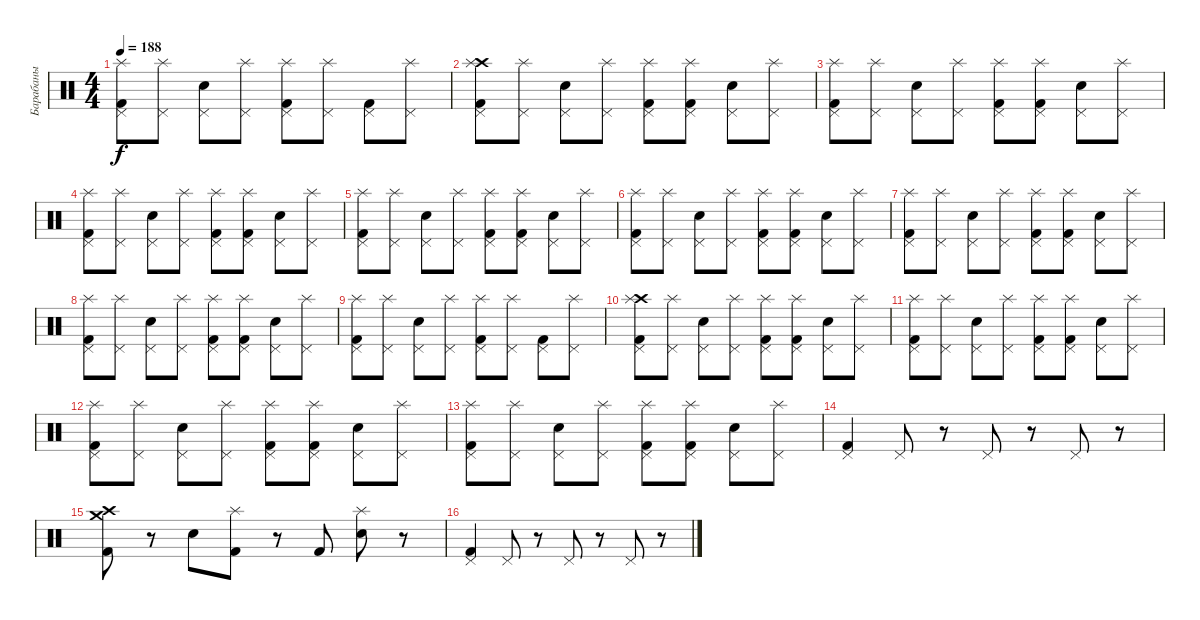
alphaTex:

\track ("Барабаны" "Барабаны") {instrument percussion}
\staff {score}
\articulation defaults
\ts (4 4)
\tempo 188
\clef neutral
\ks c
("Splash (hit)" "Pedal Hi-Hat (hit)" "Kick (hit) 2").8{dy f} ("Splash (hit)" "Pedal Hi-Hat (hit)").8 ("Electric Snare (hit)" "Pedal Hi-Hat (hit)").8 ("Splash (hit)" "Pedal Hi-Hat (hit)").8 ("Splash (hit)" "Pedal Hi-Hat (hit)" "Kick (hit) 2").8 ("Splash (hit)" "Pedal Hi-Hat (hit)").8 ("Kick (hit) 2" "Pedal Hi-Hat (hit)").8 ("Splash (hit)" "Pedal Hi-Hat (hit)").8 |
("Pedal Hi-Hat (hit)" "Kick (hit) 2" "Crash high (hit)" "Splash (hit)").8 ("Pedal Hi-Hat (hit)" "Splash (hit)").8 ("Pedal Hi-Hat (hit)" "Electric Snare (hit)").8 ("Pedal Hi-Hat (hit)" "Splash (hit)").8 ("Pedal Hi-Hat (hit)" "Kick (hit) 2" "Splash (hit)").8 ("Pedal Hi-Hat (hit)" "Kick (hit) 2" "Splash (hit)").8 ("Pedal Hi-Hat (hit)" "Electric Snare (hit)").8 ("Pedal Hi-Hat (hit)" "Splash (hit)").8 |
("Splash (hit)" "Pedal Hi-Hat (hit)" "Kick (hit) 2").8 ("Splash (hit)" "Pedal Hi-Hat (hit)").8 ("Pedal Hi-Hat (hit)" "Electric Snare (hit)").8 ("Splash (hit)" "Pedal Hi-Hat (hit)").8 ("Splash (hit)" "Pedal Hi-Hat (hit)" "Kick (hit) 2").8 ("Splash (hit)" "Pedal Hi-Hat (hit)" "Kick (hit) 2").8 ("Pedal Hi-Hat (hit)" "Electric Snare (hit)").8 ("Splash (hit)" "Pedal Hi-Hat (hit)").8 |
("Splash (hit)" "Pedal Hi-Hat (hit)" "Kick (hit) 2").8 ("Splash (hit)" "Pedal Hi-Hat (hit)").8 ("Pedal Hi-Hat (hit)" "Electric Snare (hit)").8 ("Splash (hit)" "Pedal Hi-Hat (hit)").8 ("Splash (hit)" "Pedal Hi-Hat (hit)" "Kick (hit) 2").8 ("Splash (hit)" "Pedal Hi-Hat (hit)" "Kick (hit) 2").8 ("Pedal Hi-Hat (hit)" "Electric Snare (hit)").8 ("Splash (hit)" "Pedal Hi-Hat (hit)").8 |
("Splash (hit)" "Pedal Hi-Hat (hit)" "Kick (hit) 2").8 ("Splash (hit)" "Pedal Hi-Hat (hit)").8 ("Pedal Hi-Hat (hit)" "Electric Snare (hit)").8 ("Splash (hit)" "Pedal Hi-Hat (hit)").8 ("Splash (hit)" "Pedal Hi-Hat (hit)" "Kick (hit) 2").8 ("Splash (hit)" "Pedal Hi-Hat (hit)" "Kick (hit) 2").8 ("Pedal Hi-Hat (hit)" "Electric Snare (hit)").8 ("Splash (hit)" "Pedal Hi-Hat (hit)").8 |
("Splash (hit)" "Pedal Hi-Hat (hit)" "Kick (hit) 2").8 ("Splash (hit)" "Pedal Hi-Hat (hit)").8 ("Pedal Hi-Hat (hit)" "Electric Snare (hit)").8 ("Splash (hit)" "Pedal Hi-Hat (hit)").8 ("Splash (hit)" "Pedal Hi-Hat (hit)" "Kick (hit) 2").8 ("Splash (hit)" "Pedal Hi-Hat (hit)" "Kick (hit) 2").8 ("Pedal Hi-Hat (hit)" "Electric Snare (hit)").8 ("Splash (hit)" "Pedal Hi-Hat (hit)").8 |
("Splash (hit)" "Pedal Hi-Hat (hit)" "Kick (hit) 2").8 ("Splash (hit)" "Pedal Hi-Hat (hit)").8 ("Pedal Hi-Hat (hit)" "Electric Snare (hit)").8 ("Splash (hit)" "Pedal Hi-Hat (hit)").8 ("Splash (hit)" "Pedal Hi-Hat (hit)" "Kick (hit) 2").8 ("Splash (hit)" "Pedal Hi-Hat (hit)" "Kick (hit) 2").8 ("Pedal Hi-Hat (hit)" "Electric Snare (hit)").8 ("Splash (hit)" "Pedal Hi-Hat (hit)").8 |
("Splash (hit)" "Pedal Hi-Hat (hit)" "Kick (hit) 2").8 ("Splash (hit)" "Pedal Hi-Hat (hit)").8 ("Pedal Hi-Hat (hit)" "Electric Snare (hit)").8 ("Splash (hit)" "Pedal Hi-Hat (hit)").8 ("Splash (hit)" "Pedal Hi-Hat (hit)" "Kick (hit) 2").8 ("Splash (hit)" "Pedal Hi-Hat (hit)" "Kick (hit) 2").8 ("Pedal Hi-Hat (hit)" "Electric Snare (hit)").8 ("Splash (hit)" "Pedal Hi-Hat (hit)").8 |
("Splash (hit)" "Pedal Hi-Hat (hit)" "Kick (hit) 2").8 ("Splash (hit)" "Pedal Hi-Hat (hit)").8 ("Electric Snare (hit)" "Pedal Hi-Hat (hit)").8 ("Splash (hit)" "Pedal Hi-Hat (hit)").8 ("Splash (hit)" "Pedal Hi-Hat (hit)" "Kick (hit) 2").8 ("Splash (hit)" "Pedal Hi-Hat (hit)").8 ("Kick (hit) 2" "Pedal Hi-Hat (hit)").8 ("Splash (hit)" "Pedal Hi-Hat (hit)").8 |
("Pedal Hi-Hat (hit)" "Kick (hit) 2" "Crash high (hit)" "Splash (hit)").8 ("Pedal Hi-Hat (hit)" "Splash (hit)").8 ("Pedal Hi-Hat (hit)" "Electric Snare (hit)").8 ("Pedal Hi-Hat (hit)" "Splash (hit)").8 ("Pedal Hi-Hat (hit)" "Kick (hit) 2" "Splash (hit)").8 ("Pedal Hi-Hat (hit)" "Kick (hit) 2" "Splash (hit)").8 ("Pedal Hi-Hat (hit)" "Electric Snare (hit)").8 ("Pedal Hi-Hat (hit)" "Splash (hit)").8 |
("Splash (hit)" "Pedal Hi-Hat (hit)" "Kick (hit) 2").8 ("Splash (hit)" "Pedal Hi-Hat (hit)").8 ("Pedal Hi-Hat (hit)" "Electric Snare (hit)").8 ("Splash (hit)" "Pedal Hi-Hat (hit)").8 ("Splash (hit)" "Pedal Hi-Hat (hit)" "Kick (hit) 2").8 ("Splash (hit)" "Pedal Hi-Hat (hit)" "Kick (hit) 2").8 ("Pedal Hi-Hat (hit)" "Electric Snare (hit)").8 ("Splash (hit)" "Pedal Hi-Hat (hit)").8 |
("Splash (hit)" "Pedal Hi-Hat (hit)" "Kick (hit) 2").8 ("Splash (hit)" "Pedal Hi-Hat (hit)").8 ("Pedal Hi-Hat (hit)" "Electric Snare (hit)").8 ("Splash (hit)" "Pedal Hi-Hat (hit)").8 ("Splash (hit)" "Pedal Hi-Hat (hit)" "Kick (hit) 2").8 ("Splash (hit)" "Pedal Hi-Hat (hit)" "Kick (hit) 2").8 ("Pedal Hi-Hat (hit)" "Electric Snare (hit)").8 ("Splash (hit)" "Pedal Hi-Hat (hit)").8 |
("Splash (hit)" "Pedal Hi-Hat (hit)" "Kick (hit) 2").8 ("Splash (hit)" "Pedal Hi-Hat (hit)").8 ("Pedal Hi-Hat (hit)" "Electric Snare (hit)").8 ("Splash (hit)" "Pedal Hi-Hat (hit)").8 ("Splash (hit)" "Pedal Hi-Hat (hit)" "Kick (hit) 2").8 ("Splash (hit)" "Pedal Hi-Hat (hit)" "Kick (hit) 2").8 ("Pedal Hi-Hat (hit)" "Electric Snare (hit)").8 ("Splash (hit)" "Pedal Hi-Hat (hit)").8 |
("Pedal Hi-Hat (hit)" "Kick (hit) 2").4 "Pedal Hi-Hat (hit)".8 r.8 "Pedal Hi-Hat (hit)".8 r.8 "Pedal Hi-Hat (hit)".8 r.8 |
("Crash medium (hit)" "Crash high (hit)" "Kick (hit) 2").8 r.8 "Electric Snare (hit)".8 ("Splash (hit)" "Kick (hit) 2").8 r.8 "Kick (hit) 2".8 ("Splash (hit)" "Electric Snare (hit)").8 r.8 |
("Pedal Hi-Hat (hit)" "Kick (hit) 2").4 "Pedal Hi-Hat (hit)".8 r.8 "Pedal Hi-Hat (hit)".8 r.8 "Pedal Hi-Hat (hit)".8 r.8
